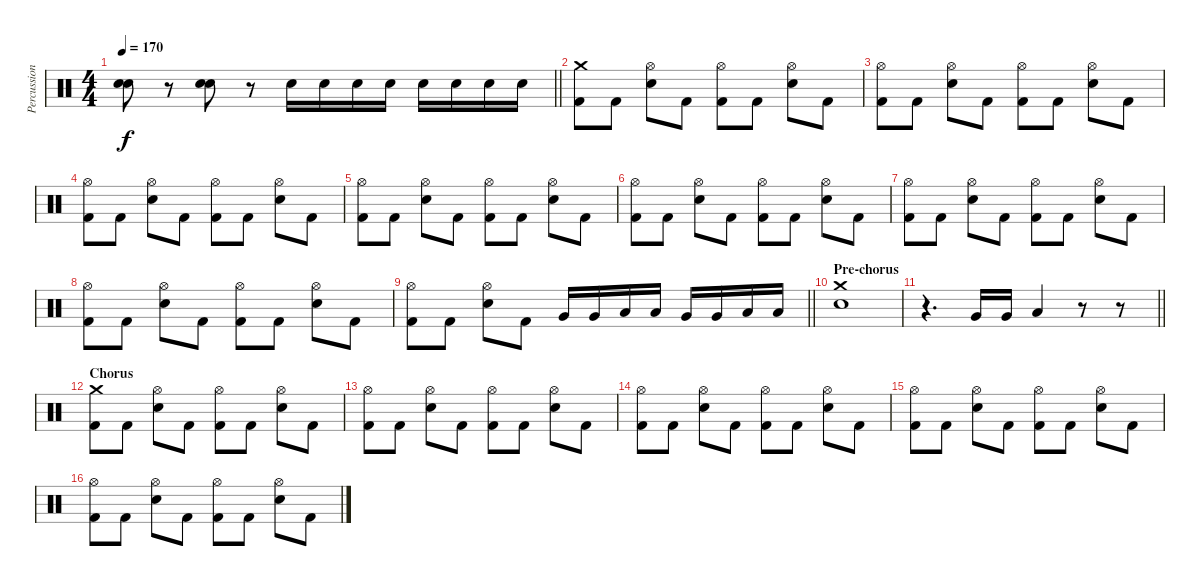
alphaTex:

\track ("Percussions" "Percussion") {instrument percussion}
\staff {score}
\articulation defaults
\ts (4 4)
\tempo 170
\clef neutral
\barLineRight lightlight
\ks c
("Snare (hit) 2" "Snare (hit) 2").8{dy f} r.8 ("Snare (hit) 2" "Snare (hit) 2").8 r.8 "Electric Snare (hit)".16 "Electric Snare (hit)".16 "Electric Snare (hit)".16 "Electric Snare (hit)".16 "Electric Snare (hit)".16 "Electric Snare (hit)".16 "Electric Snare (hit)".16 "Electric Snare (hit)".16 |
("Crash medium (hit)" "Kick (hit) 2").8 "Kick (hit) 2".8 ("Hi-Hat (open)" "Electric Snare (hit)").8 "Kick (hit) 2".8 ("Hi-Hat (open)" "Kick (hit) 2").8 "Kick (hit) 2".8 ("Hi-Hat (open)" "Electric Snare (hit)").8 "Kick (hit) 2".8 |
("Hi-Hat (open)" "Kick (hit) 2").8 "Kick (hit) 2".8 ("Hi-Hat (open)" "Electric Snare (hit)").8 "Kick (hit) 2".8 ("Hi-Hat (open)" "Kick (hit) 2").8 "Kick (hit) 2".8 ("Hi-Hat (open)" "Electric Snare (hit)").8 "Kick (hit) 2".8 |
("Hi-Hat (open)" "Kick (hit) 2").8 "Kick (hit) 2".8 ("Hi-Hat (open)" "Electric Snare (hit)").8 "Kick (hit) 2".8 ("Hi-Hat (open)" "Kick (hit) 2").8 "Kick (hit) 2".8 ("Hi-Hat (open)" "Electric Snare (hit)").8 "Kick (hit) 2".8 |
("Hi-Hat (open)" "Kick (hit) 2").8 "Kick (hit) 2".8 ("Hi-Hat (open)" "Electric Snare (hit)").8 "Kick (hit) 2".8 ("Hi-Hat (open)" "Kick (hit) 2").8 "Kick (hit) 2".8 ("Hi-Hat (open)" "Electric Snare (hit)").8 "Kick (hit) 2".8 |
("Hi-Hat (open)" "Kick (hit) 2").8 "Kick (hit) 2".8 ("Hi-Hat (open)" "Electric Snare (hit)").8 "Kick (hit) 2".8 ("Hi-Hat (open)" "Kick (hit) 2").8 "Kick (hit) 2".8 ("Hi-Hat (open)" "Electric Snare (hit)").8 "Kick (hit) 2".8 |
("Hi-Hat (open)" "Kick (hit) 2").8 "Kick (hit) 2".8 ("Hi-Hat (open)" "Electric Snare (hit)").8 "Kick (hit) 2".8 ("Hi-Hat (open)" "Kick (hit) 2").8 "Kick (hit) 2".8 ("Hi-Hat (open)" "Electric Snare (hit)").8 "Kick (hit) 2".8 |
("Hi-Hat (open)" "Kick (hit) 2").8 "Kick (hit) 2".8 ("Hi-Hat (open)" "Electric Snare (hit)").8 "Kick (hit) 2".8 ("Hi-Hat (open)" "Kick (hit) 2").8 "Kick (hit) 2".8 ("Hi-Hat (open)" "Electric Snare (hit)").8 "Kick (hit) 2".8 |
\barLineRight lightlight
("Hi-Hat (open)" "Kick (hit) 2").8 "Kick (hit) 2".8 ("Hi-Hat (open)" "Electric Snare (hit)").8 "Kick (hit) 2".8 "Very Low Tom (hit)".16 "Very Low Tom (hit)".16 "Low Floor Tom (hit)".16 "Low Floor Tom (hit)".16 "Very Low Tom (hit)".16 "Very Low Tom (hit)".16 "Low Floor Tom (hit)".16 "Low Floor Tom (hit)".16 |
\section ("" "Pre-chorus")
("Crash medium (hit)" "Electric Snare (hit)").1 |
\barLineRight lightlight
r.4{d} "Very Low Tom (hit)".16 "Very Low Tom (hit)".16 "Low Floor Tom (hit)".4 r.8 r.8 |
\section ("" "Chorus")
("Crash medium (hit)" "Kick (hit) 2").8 "Kick (hit) 2".8 ("Hi-Hat (open)" "Electric Snare (hit)").8 "Kick (hit) 2".8 ("Hi-Hat (open)" "Kick (hit) 2").8 "Kick (hit) 2".8 ("Hi-Hat (open)" "Electric Snare (hit)").8 "Kick (hit) 2".8 |
("Hi-Hat (open)" "Kick (hit) 2").8 "Kick (hit) 2".8 ("Hi-Hat (open)" "Electric Snare (hit)").8 "Kick (hit) 2".8 ("Hi-Hat (open)" "Kick (hit) 2").8 "Kick (hit) 2".8 ("Hi-Hat (open)" "Electric Snare (hit)").8 "Kick (hit) 2".8 |
("Hi-Hat (open)" "Kick (hit) 2").8 "Kick (hit) 2".8 ("Hi-Hat (open)" "Electric Snare (hit)").8 "Kick (hit) 2".8 ("Hi-Hat (open)" "Kick (hit) 2").8 "Kick (hit) 2".8 ("Hi-Hat (open)" "Electric Snare (hit)").8 "Kick (hit) 2".8 |
("Hi-Hat (open)" "Kick (hit) 2").8 "Kick (hit) 2".8 ("Hi-Hat (open)" "Electric Snare (hit)").8 "Kick (hit) 2".8 ("Hi-Hat (open)" "Kick (hit) 2").8 "Kick (hit) 2".8 ("Hi-Hat (open)" "Electric Snare (hit)").8 "Kick (hit) 2".8 |
("Hi-Hat (open)" "Kick (hit) 2").8 "Kick (hit) 2".8 ("Hi-Hat (open)" "Electric Snare (hit)").8 "Kick (hit) 2".8 ("Hi-Hat (open)" "Kick (hit) 2").8 "Kick (hit) 2".8 ("Hi-Hat (open)" "Electric Snare (hit)").8 "Kick (hit) 2".8
